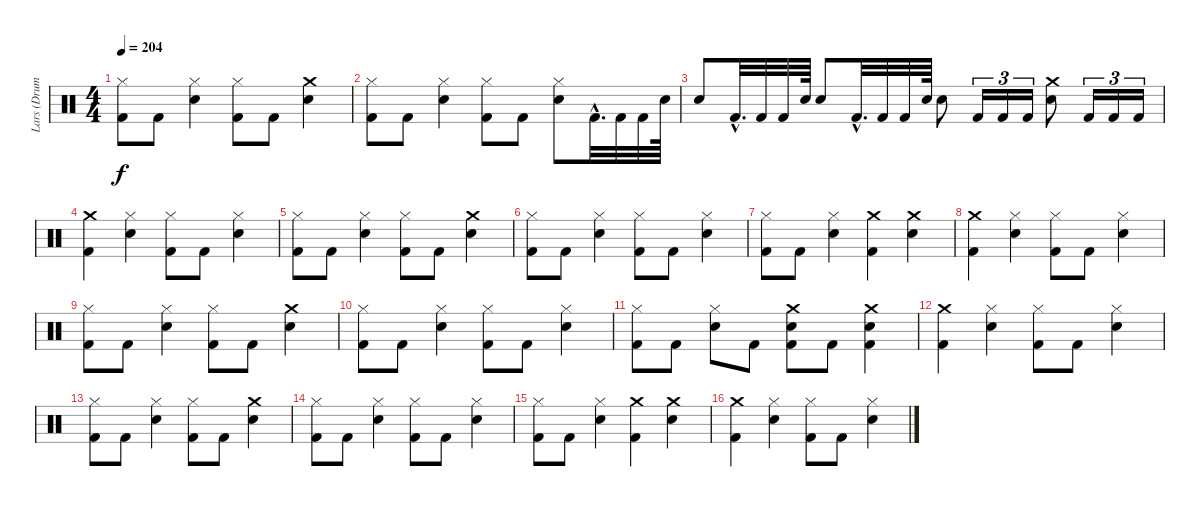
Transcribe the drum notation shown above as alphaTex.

\track ("Lars (Drums)" "Lars (Drum") {instrument percussion}
\staff {score}
\articulation defaults
\ts (4 4)
\tempo 204
\clef neutral
\ks c
("Hi-Hat (closed)" "Kick (hit) 2").8{dy f} "Kick (hit) 2".8 ("Snare (hit) 2" "Hi-Hat (closed)").4 ("Hi-Hat (closed)" "Kick (hit) 2").8 "Kick (hit) 2".8 ("Crash medium (hit)" "Snare (hit) 2").4 |
("Hi-Hat (closed)" "Kick (hit) 2").8 "Kick (hit) 2".8 ("Snare (hit) 2" "Hi-Hat (closed)").4 ("Hi-Hat (closed)" "Kick (hit) 2").8 "Kick (hit) 2".8 ("Snare (hit) 2" "Hi-Hat (closed)").8 "Kick (hit) 2"{hac}.32{d} "Kick (hit) 2".32 "Kick (hit) 2".32 "Snare (hit) 2".64 |
"Snare (hit) 2".8 "Kick (hit) 2"{hac}.32{d} "Kick (hit) 2".32 "Kick (hit) 2".32 "Snare (hit) 2".64 "Snare (hit) 2".8 "Kick (hit) 2"{hac}.32{d} "Kick (hit) 2".32 "Kick (hit) 2".32 "Snare (hit) 2".64 "Snare (hit) 2".8 "Kick (hit) 2".16{tu (3 2)} "Kick (hit) 2".16{tu (3 2)} "Kick (hit) 2".16{tu (3 2)} ("Crash medium (hit)" "Snare (hit) 2").8 "Kick (hit) 2".16{tu (3 2)} "Kick (hit) 2".16{tu (3 2)} "Kick (hit) 2".16{tu (3 2)} |
("Kick (hit) 2" "Crash medium (hit)").4 ("Hi-Hat (closed)" "Snare (hit) 2").4 ("Hi-Hat (closed)" "Kick (hit) 2").8 "Kick (hit) 2".8 ("Snare (hit) 2" "Hi-Hat (closed)").4 |
("Hi-Hat (closed)" "Kick (hit) 2").8 "Kick (hit) 2".8 ("Snare (hit) 2" "Hi-Hat (closed)").4 ("Hi-Hat (closed)" "Kick (hit) 2").8 "Kick (hit) 2".8 ("Crash medium (hit)" "Snare (hit) 2").4 |
("Hi-Hat (closed)" "Kick (hit) 2").8 "Kick (hit) 2".8 ("Snare (hit) 2" "Hi-Hat (closed)").4 ("Hi-Hat (closed)" "Kick (hit) 2").8 "Kick (hit) 2".8 ("Snare (hit) 2" "Hi-Hat (closed)").4 |
("Hi-Hat (closed)" "Kick (hit) 2").8 "Kick (hit) 2".8 ("Snare (hit) 2" "Hi-Hat (closed)").4 ("Crash medium (hit)" "Kick (hit) 2").4 ("Crash medium (hit)" "Snare (hit) 2").4 |
("Kick (hit) 2" "Crash medium (hit)").4 ("Hi-Hat (closed)" "Snare (hit) 2").4 ("Hi-Hat (closed)" "Kick (hit) 2").8 "Kick (hit) 2".8 ("Snare (hit) 2" "Hi-Hat (closed)").4 |
("Hi-Hat (closed)" "Kick (hit) 2").8 "Kick (hit) 2".8 ("Snare (hit) 2" "Hi-Hat (closed)").4 ("Hi-Hat (closed)" "Kick (hit) 2").8 "Kick (hit) 2".8 ("Crash medium (hit)" "Snare (hit) 2").4 |
("Hi-Hat (closed)" "Kick (hit) 2").8 "Kick (hit) 2".8 ("Snare (hit) 2" "Hi-Hat (closed)").4 ("Hi-Hat (closed)" "Kick (hit) 2").8 "Kick (hit) 2".8 ("Snare (hit) 2" "Hi-Hat (closed)").4 |
("Hi-Hat (closed)" "Kick (hit) 2").8 "Kick (hit) 2".8 ("Snare (hit) 2" "Hi-Hat (closed)").8 "Kick (hit) 2".8 ("Snare (hit) 2" "Crash medium (hit)" "Kick (hit) 2").8 "Kick (hit) 2".8 ("Kick (hit) 2" "Crash medium (hit)" "Snare (hit) 2").4 |
("Kick (hit) 2" "Crash medium (hit)").4 ("Hi-Hat (closed)" "Snare (hit) 2").4 ("Hi-Hat (closed)" "Kick (hit) 2").8 "Kick (hit) 2".8 ("Snare (hit) 2" "Hi-Hat (closed)").4 |
("Hi-Hat (closed)" "Kick (hit) 2").8 "Kick (hit) 2".8 ("Snare (hit) 2" "Hi-Hat (closed)").4 ("Hi-Hat (closed)" "Kick (hit) 2").8 "Kick (hit) 2".8 ("Crash medium (hit)" "Snare (hit) 2").4 |
("Hi-Hat (closed)" "Kick (hit) 2").8 "Kick (hit) 2".8 ("Snare (hit) 2" "Hi-Hat (closed)").4 ("Hi-Hat (closed)" "Kick (hit) 2").8 "Kick (hit) 2".8 ("Snare (hit) 2" "Hi-Hat (closed)").4 |
("Hi-Hat (closed)" "Kick (hit) 2").8 "Kick (hit) 2".8 ("Snare (hit) 2" "Hi-Hat (closed)").4 ("Crash medium (hit)" "Kick (hit) 2").4 ("Crash medium (hit)" "Snare (hit) 2").4 |
("Kick (hit) 2" "Crash medium (hit)").4 ("Hi-Hat (closed)" "Snare (hit) 2").4 ("Hi-Hat (closed)" "Kick (hit) 2").8 "Kick (hit) 2".8 ("Snare (hit) 2" "Hi-Hat (closed)").4
